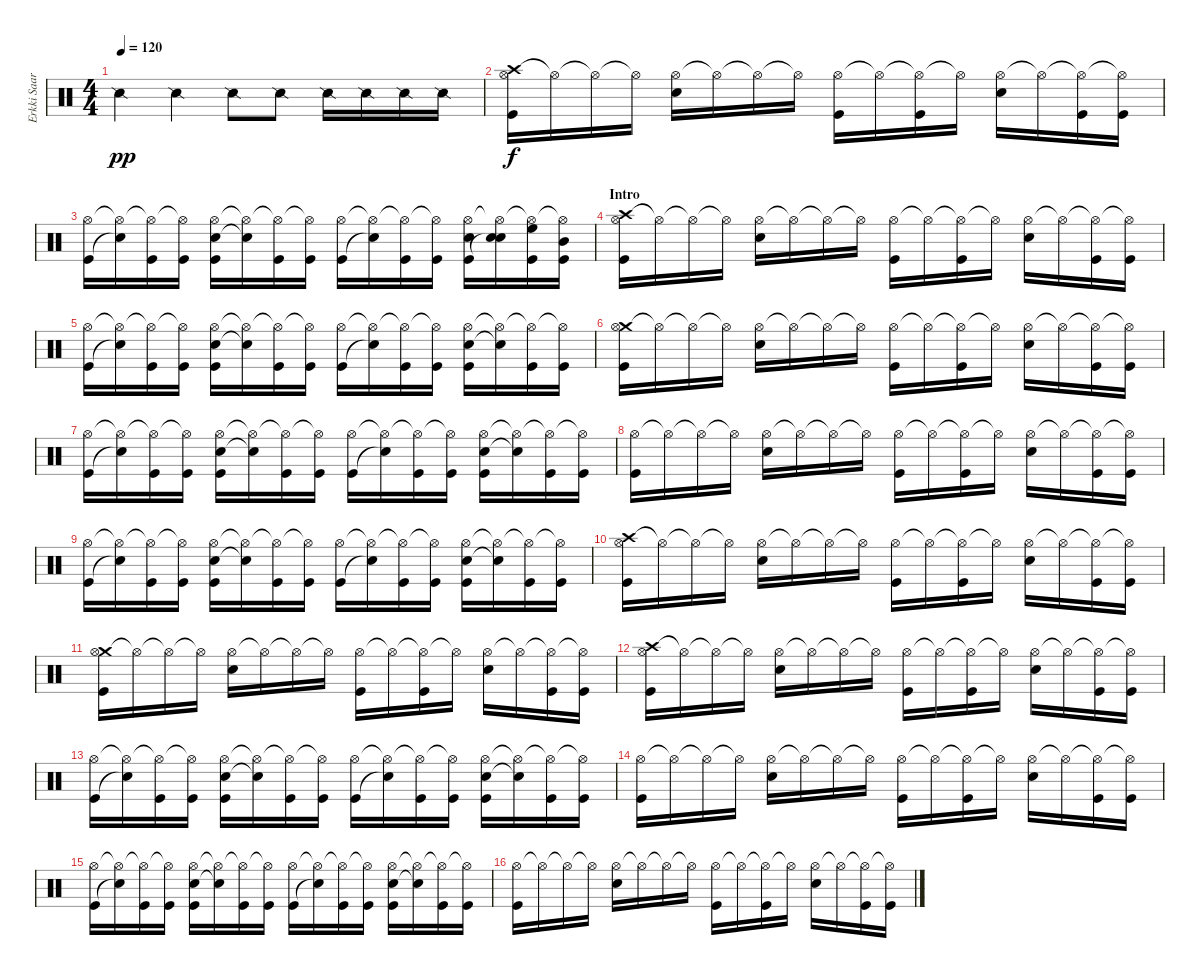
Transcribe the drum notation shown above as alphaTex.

\track ("Erkki Saarinen" "Erkki Saar") {instrument percussion}
\staff {score}
\articulation defaults
\ts (4 4)
\tempo 120
\clef neutral
\ks c "Snare (side stick) 2".4{dy pp} "Snare (side stick) 2".4 "Snare (side stick) 2".8 "Snare (side stick) 2".8 "Snare (side stick) 2".16 "Snare (side stick) 2".16 "Snare (side stick) 2".16 "Snare (side stick) 2".16
|
("Crash high (hit)" "Hi-Hat (open)" "Kick (hit)").16{dy f} "Hi-Hat (open)"{t}.16 "Hi-Hat (open)"{t}.16 "Hi-Hat (open)"{t}.16 ("Hi-Hat (open)" "Snare (hit) 2").16 "Hi-Hat (open)"{t}.16 "Hi-Hat (open)"{t}.16 "Hi-Hat (open)"{t}.16 ("Hi-Hat (open)" "Kick (hit)").16 "Hi-Hat (open)"{t}.16 ("Hi-Hat (open)"{t} "Kick (hit)").16 "Hi-Hat (open)"{t}.16 ("Hi-Hat (open)" "Snare (hit) 2").16 "Hi-Hat (open)"{t}.16 ("Hi-Hat (open)"{t} "Kick (hit)").16 ("Hi-Hat (open)"{t} "Kick (hit)").16 |
("Hi-Hat (open)" "Kick (hit)").16 ("Hi-Hat (open)"{t} "Snare (hit)"{t}).16 ("Hi-Hat (open)"{t} "Kick (hit)").16 ("Hi-Hat (open)"{t} "Kick (hit)").16 ("Hi-Hat (open)" "Snare (hit) 2" "Kick (hit)").16 ("Hi-Hat (open)"{t} "Snare (hit)"{t}).16 ("Hi-Hat (open)"{t} "Kick (hit)").16 ("Hi-Hat (open)"{t} "Kick (hit)").16 ("Hi-Hat (open)" "Kick (hit)").16 ("Hi-Hat (open)"{t} "Snare (hit)"{t}).16 ("Hi-Hat (open)"{t} "Kick (hit)").16 ("Hi-Hat (open)"{t} "Kick (hit)").16 ("Hi-Hat (open)" "Snare (hit) 2" "Kick (hit)").16 ("Hi-Hat (open)"{t} "Snare (hit) 2" "Snare (hit)"{t}).16 ("Hi-Hat (open)"{t} "High Floor Tom (hit)" "Kick (hit)").16 ("Hi-Hat (open)"{t} "Mid Tom (hit)" "Kick (hit)").16 |
\section ("" "Intro")
("Crash high (hit)" "Hi-Hat (open)" "Kick (hit)").16 "Hi-Hat (open)"{t}.16 "Hi-Hat (open)"{t}.16 "Hi-Hat (open)"{t}.16 ("Hi-Hat (open)" "Snare (hit) 2").16 "Hi-Hat (open)"{t}.16 "Hi-Hat (open)"{t}.16 "Hi-Hat (open)"{t}.16 ("Hi-Hat (open)" "Kick (hit)").16 "Hi-Hat (open)"{t}.16 ("Hi-Hat (open)"{t} "Kick (hit)").16 "Hi-Hat (open)"{t}.16 ("Hi-Hat (open)" "Snare (hit) 2").16 "Hi-Hat (open)"{t}.16 ("Hi-Hat (open)"{t} "Kick (hit)").16 ("Hi-Hat (open)"{t} "Kick (hit)").16 |
("Hi-Hat (open)" "Kick (hit)").16 ("Hi-Hat (open)"{t} "Snare (hit)"{t}).16 ("Hi-Hat (open)"{t} "Kick (hit)").16 ("Hi-Hat (open)"{t} "Kick (hit)").16 ("Hi-Hat (open)" "Snare (hit) 2" "Kick (hit)").16 ("Hi-Hat (open)"{t} "Snare (hit)"{t}).16 ("Hi-Hat (open)"{t} "Kick (hit)").16 ("Hi-Hat (open)"{t} "Kick (hit)").16 ("Hi-Hat (open)" "Kick (hit)").16 ("Hi-Hat (open)"{t} "Snare (hit)"{t}).16 ("Hi-Hat (open)"{t} "Kick (hit)").16 ("Hi-Hat (open)"{t} "Kick (hit)").16 ("Hi-Hat (open)" "Snare (hit) 2" "Kick (hit)").16 ("Hi-Hat (open)"{t} "Snare (hit)"{t}).16 ("Hi-Hat (open)"{t} "Kick (hit)").16 ("Hi-Hat (open)"{t} "Kick (hit)").16 |
("Crash medium (hit)" "Hi-Hat (open)" "Kick (hit)").16 "Hi-Hat (open)"{t}.16 "Hi-Hat (open)"{t}.16 "Hi-Hat (open)"{t}.16 ("Hi-Hat (open)" "Snare (hit) 2").16 "Hi-Hat (open)"{t}.16 "Hi-Hat (open)"{t}.16 "Hi-Hat (open)"{t}.16 ("Hi-Hat (open)" "Kick (hit)").16 "Hi-Hat (open)"{t}.16 ("Hi-Hat (open)"{t} "Kick (hit)").16 "Hi-Hat (open)"{t}.16 ("Hi-Hat (open)" "Snare (hit) 2").16 "Hi-Hat (open)"{t}.16 ("Hi-Hat (open)"{t} "Kick (hit)").16 ("Hi-Hat (open)"{t} "Kick (hit)").16 |
("Hi-Hat (open)" "Kick (hit)").16 ("Hi-Hat (open)"{t} "Snare (hit)"{t}).16 ("Hi-Hat (open)"{t} "Kick (hit)").16 ("Hi-Hat (open)"{t} "Kick (hit)").16 ("Hi-Hat (open)" "Snare (hit) 2" "Kick (hit)").16 ("Hi-Hat (open)"{t} "Snare (hit)"{t}).16 ("Hi-Hat (open)"{t} "Kick (hit)").16 ("Hi-Hat (open)"{t} "Kick (hit)").16 ("Hi-Hat (open)" "Kick (hit)").16 ("Hi-Hat (open)"{t} "Snare (hit)"{t}).16 ("Hi-Hat (open)"{t} "Kick (hit)").16 ("Hi-Hat (open)"{t} "Kick (hit)").16 ("Hi-Hat (open)" "Snare (hit) 2" "Kick (hit)").16 ("Hi-Hat (open)"{t} "Snare (hit)"{t}).16 ("Hi-Hat (open)"{t} "Kick (hit)").16 ("Hi-Hat (open)"{t} "Kick (hit)").16 |
("Hi-Hat (open)" "Kick (hit)").16 "Hi-Hat (open)"{t}.16 "Hi-Hat (open)"{t}.16 "Hi-Hat (open)"{t}.16 ("Hi-Hat (open)" "Snare (hit) 2").16 "Hi-Hat (open)"{t}.16 "Hi-Hat (open)"{t}.16 "Hi-Hat (open)"{t}.16 ("Hi-Hat (open)" "Kick (hit)").16 "Hi-Hat (open)"{t}.16 ("Hi-Hat (open)"{t} "Kick (hit)").16 "Hi-Hat (open)"{t}.16 ("Hi-Hat (open)" "Snare (hit) 2").16 "Hi-Hat (open)"{t}.16 ("Hi-Hat (open)"{t} "Kick (hit)").16 ("Hi-Hat (open)"{t} "Kick (hit)").16 |
("Hi-Hat (open)" "Kick (hit)").16 ("Hi-Hat (open)"{t} "Snare (hit)"{t}).16 ("Hi-Hat (open)"{t} "Kick (hit)").16 ("Hi-Hat (open)"{t} "Kick (hit)").16 ("Hi-Hat (open)" "Snare (hit) 2" "Kick (hit)").16 ("Hi-Hat (open)"{t} "Snare (hit)"{t}).16 ("Hi-Hat (open)"{t} "Kick (hit)").16 ("Hi-Hat (open)"{t} "Kick (hit)").16 ("Hi-Hat (open)" "Kick (hit)").16 ("Hi-Hat (open)"{t} "Snare (hit)"{t}).16 ("Hi-Hat (open)"{t} "Kick (hit)").16 ("Hi-Hat (open)"{t} "Kick (hit)").16 ("Hi-Hat (open)" "Snare (hit) 2" "Kick (hit)").16 ("Hi-Hat (open)"{t} "Snare (hit)"{t}).16 ("Hi-Hat (open)"{t} "Kick (hit)").16 ("Hi-Hat (open)"{t} "Kick (hit)").16 |
("Crash high (hit)" "Hi-Hat (open)" "Kick (hit)").16 "Hi-Hat (open)"{t}.16 "Hi-Hat (open)"{t}.16 "Hi-Hat (open)"{t}.16 ("Hi-Hat (open)" "Snare (hit) 2").16 "Hi-Hat (open)"{t}.16 "Hi-Hat (open)"{t}.16 "Hi-Hat (open)"{t}.16 ("Hi-Hat (open)" "Kick (hit)").16 "Hi-Hat (open)"{t}.16 ("Hi-Hat (open)"{t} "Kick (hit)").16 "Hi-Hat (open)"{t}.16 ("Hi-Hat (open)" "Snare (hit) 2").16 "Hi-Hat (open)"{t}.16 ("Hi-Hat (open)"{t} "Kick (hit)").16 ("Hi-Hat (open)"{t} "Kick (hit)").16 |
("Crash medium (hit)" "Hi-Hat (open)" "Kick (hit)").16 "Hi-Hat (open)"{t}.16 "Hi-Hat (open)"{t}.16 "Hi-Hat (open)"{t}.16 ("Hi-Hat (open)" "Snare (hit) 2").16 "Hi-Hat (open)"{t}.16 "Hi-Hat (open)"{t}.16 "Hi-Hat (open)"{t}.16 ("Hi-Hat (open)" "Kick (hit)").16 "Hi-Hat (open)"{t}.16 ("Hi-Hat (open)"{t} "Kick (hit)").16 "Hi-Hat (open)"{t}.16 ("Hi-Hat (open)" "Snare (hit) 2").16 "Hi-Hat (open)"{t}.16 ("Hi-Hat (open)"{t} "Kick (hit)").16 ("Hi-Hat (open)"{t} "Kick (hit)").16 |
("Crash high (hit)" "Hi-Hat (open)" "Kick (hit)").16 "Hi-Hat (open)"{t}.16 "Hi-Hat (open)"{t}.16 "Hi-Hat (open)"{t}.16 ("Hi-Hat (open)" "Snare (hit) 2").16 "Hi-Hat (open)"{t}.16 "Hi-Hat (open)"{t}.16 "Hi-Hat (open)"{t}.16 ("Hi-Hat (open)" "Kick (hit)").16 "Hi-Hat (open)"{t}.16 ("Hi-Hat (open)"{t} "Kick (hit)").16 "Hi-Hat (open)"{t}.16 ("Hi-Hat (open)" "Snare (hit) 2").16 "Hi-Hat (open)"{t}.16 ("Hi-Hat (open)"{t} "Kick (hit)").16 ("Hi-Hat (open)"{t} "Kick (hit)").16 |
("Hi-Hat (open)" "Kick (hit)").16 ("Hi-Hat (open)"{t} "Snare (hit)"{t}).16 ("Hi-Hat (open)"{t} "Kick (hit)").16 ("Hi-Hat (open)"{t} "Kick (hit)").16 ("Hi-Hat (open)" "Snare (hit) 2" "Kick (hit)").16 ("Hi-Hat (open)"{t} "Snare (hit)"{t}).16 ("Hi-Hat (open)"{t} "Kick (hit)").16 ("Hi-Hat (open)"{t} "Kick (hit)").16 ("Hi-Hat (open)" "Kick (hit)").16 ("Hi-Hat (open)"{t} "Snare (hit)"{t}).16 ("Hi-Hat (open)"{t} "Kick (hit)").16 ("Hi-Hat (open)"{t} "Kick (hit)").16 ("Hi-Hat (open)" "Snare (hit) 2" "Kick (hit)").16 ("Hi-Hat (open)"{t} "Snare (hit)"{t}).16 ("Hi-Hat (open)"{t} "Kick (hit)").16 ("Hi-Hat (open)"{t} "Kick (hit)").16 |
("Hi-Hat (open)" "Kick (hit)").16 "Hi-Hat (open)"{t}.16 "Hi-Hat (open)"{t}.16 "Hi-Hat (open)"{t}.16 ("Hi-Hat (open)" "Snare (hit) 2").16 "Hi-Hat (open)"{t}.16 "Hi-Hat (open)"{t}.16 "Hi-Hat (open)"{t}.16 ("Hi-Hat (open)" "Kick (hit)").16 "Hi-Hat (open)"{t}.16 ("Hi-Hat (open)"{t} "Kick (hit)").16 "Hi-Hat (open)"{t}.16 ("Hi-Hat (open)" "Snare (hit) 2").16 "Hi-Hat (open)"{t}.16 ("Hi-Hat (open)"{t} "Kick (hit)").16 ("Hi-Hat (open)"{t} "Kick (hit)").16 |
("Hi-Hat (open)" "Kick (hit)").16 ("Hi-Hat (open)"{t} "Snare (hit)"{t}).16 ("Hi-Hat (open)"{t} "Kick (hit)").16 ("Hi-Hat (open)"{t} "Kick (hit)").16 ("Hi-Hat (open)" "Snare (hit) 2" "Kick (hit)").16 ("Hi-Hat (open)"{t} "Snare (hit)"{t}).16 ("Hi-Hat (open)"{t} "Kick (hit)").16 ("Hi-Hat (open)"{t} "Kick (hit)").16 ("Hi-Hat (open)" "Kick (hit)").16 ("Hi-Hat (open)"{t} "Snare (hit)"{t}).16 ("Hi-Hat (open)"{t} "Kick (hit)").16 ("Hi-Hat (open)"{t} "Kick (hit)").16 ("Hi-Hat (open)" "Snare (hit) 2" "Kick (hit)").16 ("Hi-Hat (open)"{t} "Snare (hit)"{t}).16 ("Hi-Hat (open)"{t} "Kick (hit)").16 ("Hi-Hat (open)"{t} "Kick (hit)").16 |
("Hi-Hat (open)" "Kick (hit)").16 "Hi-Hat (open)"{t}.16 "Hi-Hat (open)"{t}.16 "Hi-Hat (open)"{t}.16 ("Hi-Hat (open)" "Snare (hit) 2").16 "Hi-Hat (open)"{t}.16 "Hi-Hat (open)"{t}.16 "Hi-Hat (open)"{t}.16 ("Hi-Hat (open)" "Kick (hit)").16 "Hi-Hat (open)"{t}.16 ("Hi-Hat (open)"{t} "Kick (hit)").16 "Hi-Hat (open)"{t}.16 ("Hi-Hat (open)" "Snare (hit) 2").16 "Hi-Hat (open)"{t}.16 ("Hi-Hat (open)"{t} "Kick (hit)").16 ("Hi-Hat (open)"{t} "Kick (hit)").16
